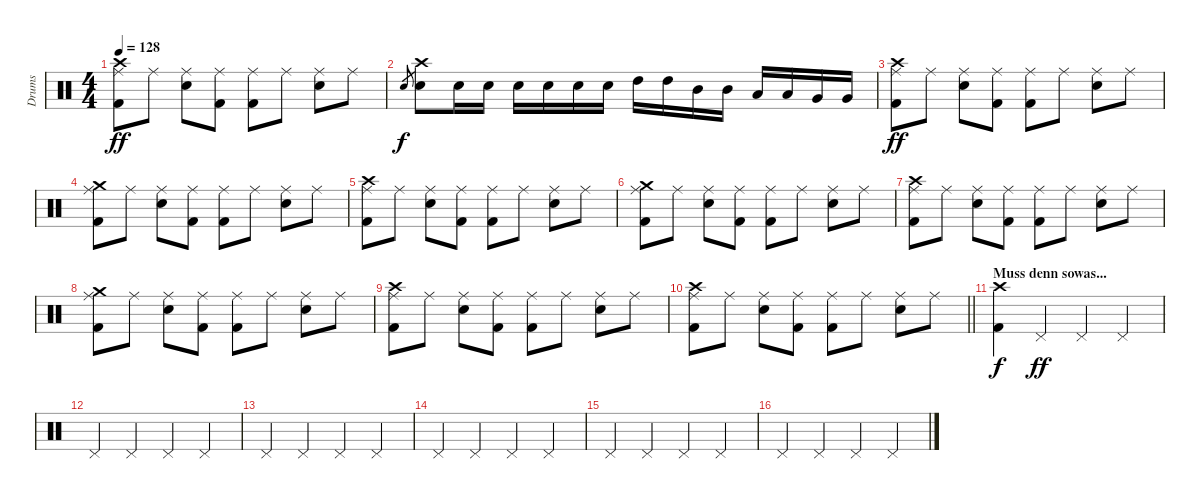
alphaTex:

\track ("Drums" "Drums") {instrument percussion}
\staff {score}
\articulation defaults
\ts (4 4)
\tempo 128
\clef neutral
\ks c
("Ride (middle)" "Kick (hit) 2" "Crash high (hit)").8{dy ff} "Ride (middle)".8 ("Ride (middle)" "Snare (hit) 2").8 ("Ride (middle)" "Kick (hit) 2").8 ("Ride (middle)" "Kick (hit) 2").8 "Ride (middle)".8 ("Ride (middle)" "Snare (hit) 2").8 "Ride (middle)".8 |
"Snare (hit) 2".8{gr dy f} ("Snare (hit) 2" "Crash high (hit)").8 "Snare (hit) 2".16 "Snare (hit) 2".16 "Snare (hit) 2".16 "Snare (hit) 2".16 "Snare (hit) 2".16 "Snare (hit) 2".16 "High Tom (hit)".16 "High Tom (hit)".16 "Mid Tom (hit)".16 "Mid Tom (hit)".16 "Low Tom (hit)".16 "Low Tom (hit)".16 "Very Low Tom (hit)".16 "Very Low Tom (hit)".16 |
("Ride (middle)" "Kick (hit) 2" "Crash high (hit)").8{dy ff} "Ride (middle)".8 ("Ride (middle)" "Snare (hit) 2").8 ("Ride (middle)" "Kick (hit) 2").8 ("Ride (middle)" "Kick (hit) 2").8 "Ride (middle)".8 ("Ride (middle)" "Snare (hit) 2").8 "Ride (middle)".8 |
("Ride (middle)" "Kick (hit) 2" "Crash medium (hit)").8 "Ride (middle)".8 ("Ride (middle)" "Snare (hit) 2").8 ("Ride (middle)" "Kick (hit) 2").8 ("Ride (middle)" "Kick (hit) 2").8 "Ride (middle)".8 ("Ride (middle)" "Snare (hit) 2").8 "Ride (middle)".8 |
("Ride (middle)" "Kick (hit) 2" "Crash high (hit)").8 "Ride (middle)".8 ("Ride (middle)" "Snare (hit) 2").8 ("Ride (middle)" "Kick (hit) 2").8 ("Ride (middle)" "Kick (hit) 2").8 "Ride (middle)".8 ("Ride (middle)" "Snare (hit) 2").8 "Ride (middle)".8 |
("Ride (middle)" "Kick (hit) 2" "Crash medium (hit)").8 "Ride (middle)".8 ("Ride (middle)" "Snare (hit) 2").8 ("Ride (middle)" "Kick (hit) 2").8 ("Ride (middle)" "Kick (hit) 2").8 "Ride (middle)".8 ("Ride (middle)" "Snare (hit) 2").8 "Ride (middle)".8 |
("Ride (middle)" "Kick (hit) 2" "Crash high (hit)").8 "Ride (middle)".8 ("Ride (middle)" "Snare (hit) 2").8 ("Ride (middle)" "Kick (hit) 2").8 ("Ride (middle)" "Kick (hit) 2").8 "Ride (middle)".8 ("Ride (middle)" "Snare (hit) 2").8 "Ride (middle)".8 |
("Ride (middle)" "Kick (hit) 2" "Crash medium (hit)").8 "Ride (middle)".8 ("Ride (middle)" "Snare (hit) 2").8 ("Ride (middle)" "Kick (hit) 2").8 ("Ride (middle)" "Kick (hit) 2").8 "Ride (middle)".8 ("Ride (middle)" "Snare (hit) 2").8 "Ride (middle)".8 |
("Ride (middle)" "Kick (hit) 2" "Crash high (hit)").8 "Ride (middle)".8 ("Ride (middle)" "Snare (hit) 2").8 ("Ride (middle)" "Kick (hit) 2").8 ("Ride (middle)" "Kick (hit) 2").8 "Ride (middle)".8 ("Ride (middle)" "Snare (hit) 2").8 "Ride (middle)".8 |
\barLineRight lightlight
("Ride (middle)" "Kick (hit) 2" "Crash high (hit)").8 "Ride (middle)".8 ("Ride (middle)" "Snare (hit) 2").8 ("Ride (middle)" "Kick (hit) 2").8 ("Ride (middle)" "Kick (hit) 2").8 "Ride (middle)".8 ("Ride (middle)" "Snare (hit) 2").8 "Ride (middle)".8 |
\section ("" "Muss denn sowas...")
("Kick (hit) 2" "Crash high (hit)").4{dy f} "Pedal Hi-Hat (hit)".4{dy ff} "Pedal Hi-Hat (hit)".4 "Pedal Hi-Hat (hit)".4 |
"Pedal Hi-Hat (hit)".4 "Pedal Hi-Hat (hit)".4 "Pedal Hi-Hat (hit)".4 "Pedal Hi-Hat (hit)".4 |
"Pedal Hi-Hat (hit)".4 "Pedal Hi-Hat (hit)".4 "Pedal Hi-Hat (hit)".4 "Pedal Hi-Hat (hit)".4 |
"Pedal Hi-Hat (hit)".4 "Pedal Hi-Hat (hit)".4 "Pedal Hi-Hat (hit)".4 "Pedal Hi-Hat (hit)".4 |
"Pedal Hi-Hat (hit)".4 "Pedal Hi-Hat (hit)".4 "Pedal Hi-Hat (hit)".4 "Pedal Hi-Hat (hit)".4 |
"Pedal Hi-Hat (hit)".4 "Pedal Hi-Hat (hit)".4 "Pedal Hi-Hat (hit)".4 "Pedal Hi-Hat (hit)".4
